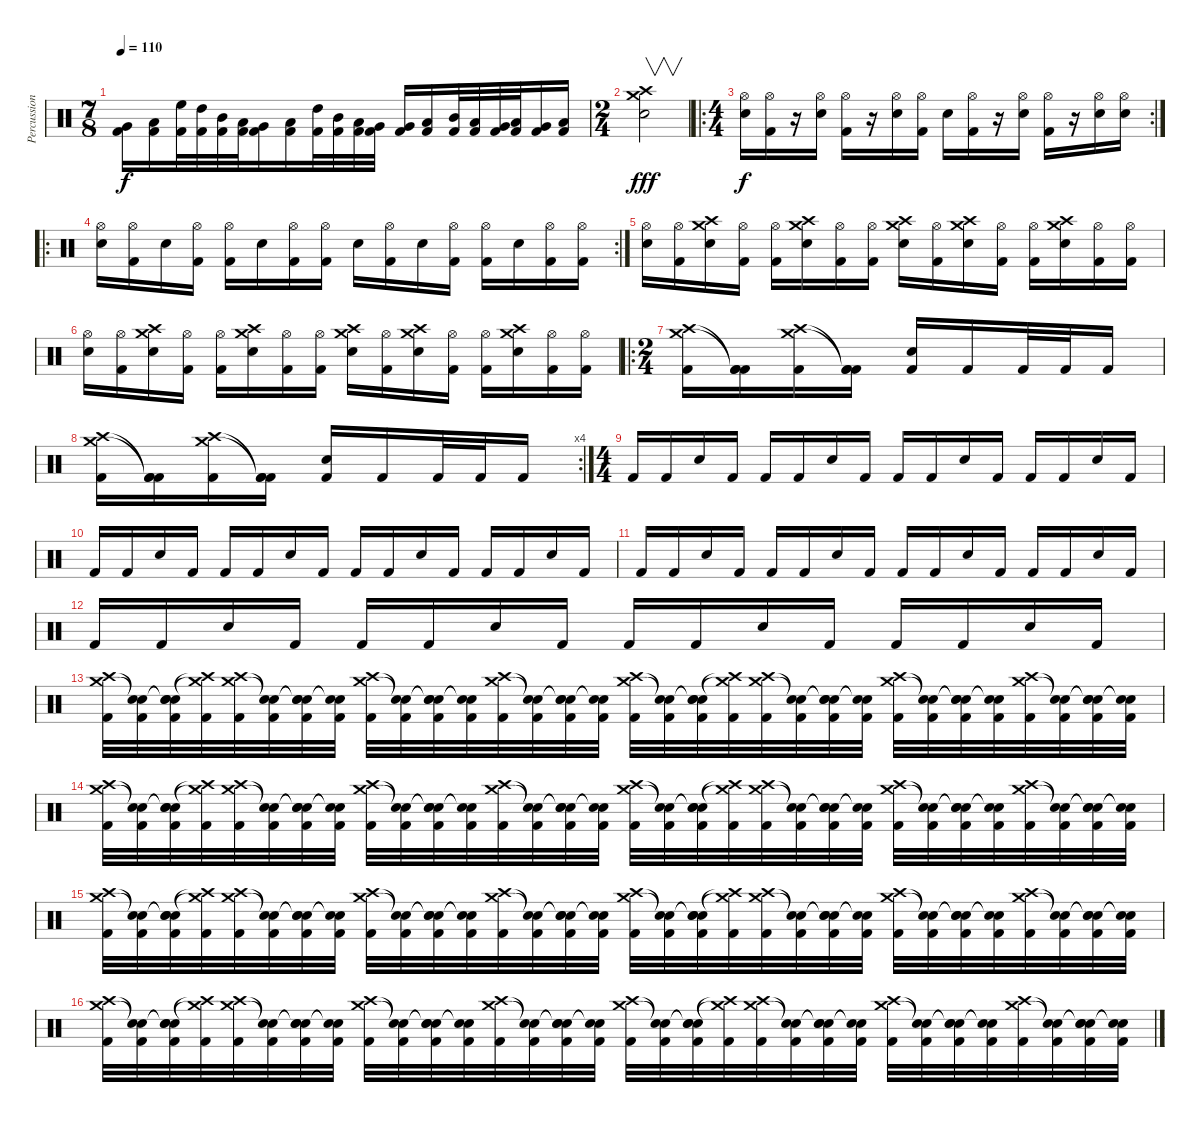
\track ("Percussion" "Percussion") {instrument percussion}
\staff {score}
\articulation defaults
\ts (7 8)
\tempo 110
\clef neutral
\ks c
("Very Low Tom (hit)" "Kick (hit) 2").16{dy f} ("Low Floor Tom (hit)" "Kick (hit) 2").16 ("High Floor Tom (hit)" "Kick (hit) 2").32 ("High Tom (hit)" "Kick (hit) 2").32 ("Mid Tom (hit)" "Kick (hit) 2").32 ("Low Tom (hit)" "Kick (hit) 2").32 ("Very Low Tom (hit)" "Kick (hit) 2").16 ("Low Floor Tom (hit)" "Kick (hit) 2").16 ("High Tom (hit)" "Kick (hit) 2").32 ("Mid Tom (hit)" "Kick (hit) 2").32 ("Low Tom (hit)" "Kick (hit) 2").32 ("Very Low Tom (hit)" "Kick (hit) 2").32 ("Very Low Tom (hit)" "Kick (hit) 2").16 ("Low Floor Tom (hit)" "Kick (hit) 2").16 ("Mid Tom (hit)" "Kick (hit) 2").32 ("Low Tom (hit)" "Kick (hit) 2").32 ("Very Low Tom (hit)" "Kick (hit) 2").32 ("Low Floor Tom (hit)" "Kick (hit) 2").32 ("Very Low Tom (hit)" "Kick (hit) 2").16 ("Low Floor Tom (hit)" "Kick (hit) 2").16 |
\ts (2 4)
("Crash high (hit)" "Snare (hit) 2" "Crash medium (hit)").2{v dy fff} |
\ro
\rc 2
\ts (4 4)
("Hi-Hat (open)" "Snare (hit) 2").16{dy f} ("Hi-Hat (open)" "Kick (hit) 2").16 r.16 ("Hi-Hat (open)" "Snare (hit) 2").16 ("Hi-Hat (open)" "Kick (hit) 2").16 r.16 ("Hi-Hat (open)" "Snare (hit) 2").16 ("Hi-Hat (open)" "Kick (hit) 2").16 "Snare (hit) 2".16 ("Hi-Hat (open)" "Kick (hit) 2").16 r.16 ("Hi-Hat (open)" "Snare (hit) 2").16 ("Hi-Hat (open)" "Kick (hit) 2").16 r.16 ("Hi-Hat (open)" "Snare (hit) 2").16 ("Hi-Hat (open)" "Snare (hit) 2").16 |
\ro
\rc 2
("Hi-Hat (open)" "Snare (hit) 2").16 ("Hi-Hat (open)" "Kick (hit) 2").16 "Snare (hit) 2".16 ("Hi-Hat (open)" "Kick (hit) 2").16 ("Hi-Hat (open)" "Kick (hit) 2").16 "Snare (hit) 2".16 ("Hi-Hat (open)" "Kick (hit) 2").16 ("Hi-Hat (open)" "Kick (hit) 2").16 "Snare (hit) 2".16 ("Hi-Hat (open)" "Kick (hit) 2").16 "Snare (hit) 2".16 ("Hi-Hat (open)" "Kick (hit) 2").16 ("Hi-Hat (open)" "Kick (hit) 2").16 "Snare (hit) 2".16 ("Hi-Hat (open)" "Kick (hit) 2").16 ("Hi-Hat (open)" "Kick (hit) 2").16 |
("Hi-Hat (open)" "Snare (hit) 2").16 ("Hi-Hat (open)" "Kick (hit) 2").16 ("Crash high (hit)" "Crash medium (hit)" "Snare (hit) 2").16 ("Hi-Hat (open)" "Kick (hit) 2").16 ("Hi-Hat (open)" "Kick (hit) 2").16 ("Crash high (hit)" "Crash medium (hit)" "Snare (hit) 2").16 ("Hi-Hat (open)" "Kick (hit) 2").16 ("Hi-Hat (open)" "Kick (hit) 2").16 ("Crash high (hit)" "Crash medium (hit)" "Snare (hit) 2").16 ("Hi-Hat (open)" "Kick (hit) 2").16 ("Crash high (hit)" "Crash medium (hit)" "Snare (hit) 2").16 ("Hi-Hat (open)" "Kick (hit) 2").16 ("Hi-Hat (open)" "Kick (hit) 2").16 ("Crash high (hit)" "Crash medium (hit)" "Snare (hit) 2").16 ("Hi-Hat (open)" "Kick (hit) 2").16 ("Hi-Hat (open)" "Kick (hit) 2").16 |
("Hi-Hat (open)" "Snare (hit) 2").16 ("Hi-Hat (open)" "Kick (hit) 2").16 ("Crash high (hit)" "Crash medium (hit)" "Snare (hit) 2").16 ("Hi-Hat (open)" "Kick (hit) 2").16 ("Hi-Hat (open)" "Kick (hit) 2").16 ("Crash high (hit)" "Crash medium (hit)" "Snare (hit) 2").16 ("Hi-Hat (open)" "Kick (hit) 2").16 ("Hi-Hat (open)" "Kick (hit) 2").16 ("Crash high (hit)" "Crash medium (hit)" "Snare (hit) 2").16 ("Hi-Hat (open)" "Kick (hit) 2").16 ("Crash high (hit)" "Crash medium (hit)" "Snare (hit) 2").16 ("Hi-Hat (open)" "Kick (hit) 2").16 ("Hi-Hat (open)" "Kick (hit) 2").16 ("Crash high (hit)" "Crash medium (hit)" "Snare (hit) 2").16 ("Hi-Hat (open)" "Kick (hit) 2").16 ("Hi-Hat (open)" "Kick (hit) 2").16 |
\ro
\ts (2 4)
("Crash high (hit)" "Crash medium (hit)" "Kick (hit) 2").16 ("Kick (hit) 2"{t} "Kick (hit) 2"{t} "Kick (hit) 2").16 ("Crash high (hit)" "Crash medium (hit)" "Kick (hit) 2").16 ("Kick (hit) 2"{t} "Kick (hit) 2"{t} "Kick (hit) 2").16 ("Snare (hit) 2" "Kick (hit) 2").16 "Kick (hit) 2".16 "Kick (hit) 2".32 "Kick (hit) 2".32 "Kick (hit) 2".16 |
\rc 4
("Crash high (hit)" "Crash medium (hit)" "Kick (hit) 2").16 ("Kick (hit) 2"{t} "Kick (hit) 2"{t} "Kick (hit) 2").16 ("Crash high (hit)" "Crash medium (hit)" "Kick (hit) 2").16 ("Kick (hit) 2"{t} "Kick (hit) 2"{t} "Kick (hit) 2").16 ("Snare (hit) 2" "Kick (hit) 2").16 "Kick (hit) 2".16 "Kick (hit) 2".32 "Kick (hit) 2".32 "Kick (hit) 2".16 |
\ts (4 4)
"Kick (hit) 2".16 "Kick (hit) 2".16 "Snare (hit) 2".16 "Kick (hit) 2".16 "Kick (hit) 2".16 "Kick (hit) 2".16 "Snare (hit) 2".16 "Kick (hit) 2".16 "Kick (hit) 2".16 "Kick (hit) 2".16 "Snare (hit) 2".16 "Kick (hit) 2".16 "Kick (hit) 2".16 "Kick (hit) 2".16 "Snare (hit) 2".16 "Kick (hit) 2".16 |
"Kick (hit) 2".16 "Kick (hit) 2".16 "Snare (hit) 2".16 "Kick (hit) 2".16 "Kick (hit) 2".16 "Kick (hit) 2".16 "Snare (hit) 2".16 "Kick (hit) 2".16 "Kick (hit) 2".16 "Kick (hit) 2".16 "Snare (hit) 2".16 "Kick (hit) 2".16 "Kick (hit) 2".16 "Kick (hit) 2".16 "Snare (hit) 2".16 "Kick (hit) 2".16 |
"Kick (hit) 2".16 "Kick (hit) 2".16 "Snare (hit) 2".16 "Kick (hit) 2".16 "Kick (hit) 2".16 "Kick (hit) 2".16 "Snare (hit) 2".16 "Kick (hit) 2".16 "Kick (hit) 2".16 "Kick (hit) 2".16 "Snare (hit) 2".16 "Kick (hit) 2".16 "Kick (hit) 2".16 "Kick (hit) 2".16 "Snare (hit) 2".16 "Kick (hit) 2".16 |
"Kick (hit) 2".16 "Kick (hit) 2".16 "Snare (hit) 2".16 "Kick (hit) 2".16 "Kick (hit) 2".16 "Kick (hit) 2".16 "Snare (hit) 2".16 "Kick (hit) 2".16 "Kick (hit) 2".16 "Kick (hit) 2".16 "Snare (hit) 2".16 "Kick (hit) 2".16 "Kick (hit) 2".16 "Kick (hit) 2".16 "Snare (hit) 2".16 "Kick (hit) 2".16 |
("Crash high (hit)" "Crash medium (hit)" "Kick (hit) 2").32 ("Snare (hit)"{t} "Snare (hit)"{t} "Kick (hit) 2").32 ("Snare (hit)"{t} "Snare (hit)"{t} "Snare (hit) 2" "Kick (hit) 2").32 ("Crash high (hit)"{t} "Crash medium (hit)"{t} "Kick (hit) 2").32 ("Crash high (hit)" "Crash medium (hit)" "Kick (hit) 2").32 ("Snare (hit)"{t} "Snare (hit)"{t} "Kick (hit) 2").32 ("Snare (hit)"{t} "Snare (hit)"{t} "Snare (hit) 2" "Kick (hit) 2").32 ("Snare (hit)"{t} "Snare (hit)"{t} "Kick (hit) 2").32 ("Crash high (hit)" "Crash medium (hit)" "Kick (hit) 2").32 ("Snare (hit)"{t} "Snare (hit)"{t} "Kick (hit) 2").32 ("Snare (hit)"{t} "Snare (hit)"{t} "Snare (hit) 2" "Kick (hit) 2").32 ("Snare (hit)"{t} "Snare (hit)"{t} "Kick (hit) 2").32 ("Crash high (hit)" "Crash medium (hit)" "Kick (hit) 2").32 ("Snare (hit)"{t} "Snare (hit)"{t} "Kick (hit) 2").32 ("Snare (hit)"{t} "Snare (hit)"{t} "Snare (hit) 2" "Kick (hit) 2").32 ("Snare (hit)"{t} "Snare (hit)"{t} "Kick (hit) 2").32 ("Crash high (hit)" "Crash medium (hit)" "Kick (hit) 2").32 ("Snare (hit)"{t} "Snare (hit)"{t} "Kick (hit) 2").32 ("Snare (hit)"{t} "Snare (hit)"{t} "Snare (hit) 2" "Kick (hit) 2").32 ("Crash high (hit)"{t} "Crash medium (hit)"{t} "Kick (hit) 2").32 ("Crash high (hit)" "Crash medium (hit)" "Kick (hit) 2").32 ("Snare (hit)"{t} "Snare (hit)"{t} "Kick (hit) 2").32 ("Snare (hit)"{t} "Snare (hit)"{t} "Snare (hit) 2" "Kick (hit) 2").32 ("Snare (hit)"{t} "Snare (hit)"{t} "Kick (hit) 2").32 ("Crash high (hit)" "Crash medium (hit)" "Kick (hit) 2").32 ("Snare (hit)"{t} "Snare (hit)"{t} "Kick (hit) 2").32 ("Snare (hit)"{t} "Snare (hit)"{t} "Snare (hit) 2" "Kick (hit) 2").32 ("Snare (hit)"{t} "Snare (hit)"{t} "Kick (hit) 2").32 ("Crash high (hit)" "Crash medium (hit)" "Kick (hit) 2").32 ("Snare (hit)"{t} "Snare (hit)"{t} "Kick (hit) 2").32 ("Snare (hit)"{t} "Snare (hit)"{t} "Snare (hit) 2" "Kick (hit) 2").32 ("Snare (hit)"{t} "Snare (hit)"{t} "Kick (hit) 2").32 |
("Crash high (hit)" "Crash medium (hit)" "Kick (hit) 2").32 ("Snare (hit)"{t} "Snare (hit)"{t} "Kick (hit) 2").32 ("Snare (hit)"{t} "Snare (hit)"{t} "Snare (hit) 2" "Kick (hit) 2").32 ("Crash high (hit)"{t} "Crash medium (hit)"{t} "Kick (hit) 2").32 ("Crash high (hit)" "Crash medium (hit)" "Kick (hit) 2").32 ("Snare (hit)"{t} "Snare (hit)"{t} "Kick (hit) 2").32 ("Snare (hit)"{t} "Snare (hit)"{t} "Snare (hit) 2" "Kick (hit) 2").32 ("Snare (hit)"{t} "Snare (hit)"{t} "Kick (hit) 2").32 ("Crash high (hit)" "Crash medium (hit)" "Kick (hit) 2").32 ("Snare (hit)"{t} "Snare (hit)"{t} "Kick (hit) 2").32 ("Snare (hit)"{t} "Snare (hit)"{t} "Snare (hit) 2" "Kick (hit) 2").32 ("Snare (hit)"{t} "Snare (hit)"{t} "Kick (hit) 2").32 ("Crash high (hit)" "Crash medium (hit)" "Kick (hit) 2").32 ("Snare (hit)"{t} "Snare (hit)"{t} "Kick (hit) 2").32 ("Snare (hit)"{t} "Snare (hit)"{t} "Snare (hit) 2" "Kick (hit) 2").32 ("Snare (hit)"{t} "Snare (hit)"{t} "Kick (hit) 2").32 ("Crash high (hit)" "Crash medium (hit)" "Kick (hit) 2").32 ("Snare (hit)"{t} "Snare (hit)"{t} "Kick (hit) 2").32 ("Snare (hit)"{t} "Snare (hit)"{t} "Snare (hit) 2" "Kick (hit) 2").32 ("Crash high (hit)"{t} "Crash medium (hit)"{t} "Kick (hit) 2").32 ("Crash high (hit)" "Crash medium (hit)" "Kick (hit) 2").32 ("Snare (hit)"{t} "Snare (hit)"{t} "Kick (hit) 2").32 ("Snare (hit)"{t} "Snare (hit)"{t} "Snare (hit) 2" "Kick (hit) 2").32 ("Snare (hit)"{t} "Snare (hit)"{t} "Kick (hit) 2").32 ("Crash high (hit)" "Crash medium (hit)" "Kick (hit) 2").32 ("Snare (hit)"{t} "Snare (hit)"{t} "Kick (hit) 2").32 ("Snare (hit)"{t} "Snare (hit)"{t} "Snare (hit) 2" "Kick (hit) 2").32 ("Snare (hit)"{t} "Snare (hit)"{t} "Kick (hit) 2").32 ("Crash high (hit)" "Crash medium (hit)" "Kick (hit) 2").32 ("Snare (hit)"{t} "Snare (hit)"{t} "Kick (hit) 2").32 ("Snare (hit)"{t} "Snare (hit)"{t} "Snare (hit) 2" "Kick (hit) 2").32 ("Snare (hit)"{t} "Snare (hit)"{t} "Kick (hit) 2").32 |
("Crash high (hit)" "Crash medium (hit)" "Kick (hit) 2").32 ("Snare (hit)"{t} "Snare (hit)"{t} "Kick (hit) 2").32 ("Snare (hit)"{t} "Snare (hit)"{t} "Snare (hit) 2" "Kick (hit) 2").32 ("Crash high (hit)"{t} "Crash medium (hit)"{t} "Kick (hit) 2").32 ("Crash high (hit)" "Crash medium (hit)" "Kick (hit) 2").32 ("Snare (hit)"{t} "Snare (hit)"{t} "Kick (hit) 2").32 ("Snare (hit)"{t} "Snare (hit)"{t} "Snare (hit) 2" "Kick (hit) 2").32 ("Snare (hit)"{t} "Snare (hit)"{t} "Kick (hit) 2").32 ("Crash high (hit)" "Crash medium (hit)" "Kick (hit) 2").32 ("Snare (hit)"{t} "Snare (hit)"{t} "Kick (hit) 2").32 ("Snare (hit)"{t} "Snare (hit)"{t} "Snare (hit) 2" "Kick (hit) 2").32 ("Snare (hit)"{t} "Snare (hit)"{t} "Kick (hit) 2").32 ("Crash high (hit)" "Crash medium (hit)" "Kick (hit) 2").32 ("Snare (hit)"{t} "Snare (hit)"{t} "Kick (hit) 2").32 ("Snare (hit)"{t} "Snare (hit)"{t} "Snare (hit) 2" "Kick (hit) 2").32 ("Snare (hit)"{t} "Snare (hit)"{t} "Kick (hit) 2").32 ("Crash high (hit)" "Crash medium (hit)" "Kick (hit) 2").32 ("Snare (hit)"{t} "Snare (hit)"{t} "Kick (hit) 2").32 ("Snare (hit)"{t} "Snare (hit)"{t} "Snare (hit) 2" "Kick (hit) 2").32 ("Crash high (hit)"{t} "Crash medium (hit)"{t} "Kick (hit) 2").32 ("Crash high (hit)" "Crash medium (hit)" "Kick (hit) 2").32 ("Snare (hit)"{t} "Snare (hit)"{t} "Kick (hit) 2").32 ("Snare (hit)"{t} "Snare (hit)"{t} "Snare (hit) 2" "Kick (hit) 2").32 ("Snare (hit)"{t} "Snare (hit)"{t} "Kick (hit) 2").32 ("Crash high (hit)" "Crash medium (hit)" "Kick (hit) 2").32 ("Snare (hit)"{t} "Snare (hit)"{t} "Kick (hit) 2").32 ("Snare (hit)"{t} "Snare (hit)"{t} "Snare (hit) 2" "Kick (hit) 2").32 ("Snare (hit)"{t} "Snare (hit)"{t} "Kick (hit) 2").32 ("Crash high (hit)" "Crash medium (hit)" "Kick (hit) 2").32 ("Snare (hit)"{t} "Snare (hit)"{t} "Kick (hit) 2").32 ("Snare (hit)"{t} "Snare (hit)"{t} "Snare (hit) 2" "Kick (hit) 2").32 ("Snare (hit)"{t} "Snare (hit)"{t} "Kick (hit) 2").32 |
("Crash high (hit)" "Crash medium (hit)" "Kick (hit) 2").32 ("Snare (hit)"{t} "Snare (hit)"{t} "Kick (hit) 2").32 ("Snare (hit)"{t} "Snare (hit)"{t} "Snare (hit) 2" "Kick (hit) 2").32 ("Crash high (hit)"{t} "Crash medium (hit)"{t} "Kick (hit) 2").32 ("Crash high (hit)" "Crash medium (hit)" "Kick (hit) 2").32 ("Snare (hit)"{t} "Snare (hit)"{t} "Kick (hit) 2").32 ("Snare (hit)"{t} "Snare (hit)"{t} "Snare (hit) 2" "Kick (hit) 2").32 ("Snare (hit)"{t} "Snare (hit)"{t} "Kick (hit) 2").32 ("Crash high (hit)" "Crash medium (hit)" "Kick (hit) 2").32 ("Snare (hit)"{t} "Snare (hit)"{t} "Kick (hit) 2").32 ("Snare (hit)"{t} "Snare (hit)"{t} "Snare (hit) 2" "Kick (hit) 2").32 ("Snare (hit)"{t} "Snare (hit)"{t} "Kick (hit) 2").32 ("Crash high (hit)" "Crash medium (hit)" "Kick (hit) 2").32 ("Snare (hit)"{t} "Snare (hit)"{t} "Kick (hit) 2").32 ("Snare (hit)"{t} "Snare (hit)"{t} "Snare (hit) 2" "Kick (hit) 2").32 ("Snare (hit)"{t} "Snare (hit)"{t} "Kick (hit) 2").32 ("Crash high (hit)" "Crash medium (hit)" "Kick (hit) 2").32 ("Snare (hit)"{t} "Snare (hit)"{t} "Kick (hit) 2").32 ("Snare (hit)"{t} "Snare (hit)"{t} "Snare (hit) 2" "Kick (hit) 2").32 ("Crash high (hit)"{t} "Crash medium (hit)"{t} "Kick (hit) 2").32 ("Crash high (hit)" "Crash medium (hit)" "Kick (hit) 2").32 ("Snare (hit)"{t} "Snare (hit)"{t} "Kick (hit) 2").32 ("Snare (hit)"{t} "Snare (hit)"{t} "Snare (hit) 2" "Kick (hit) 2").32 ("Snare (hit)"{t} "Snare (hit)"{t} "Kick (hit) 2").32 ("Crash high (hit)" "Crash medium (hit)" "Kick (hit) 2").32 ("Snare (hit)"{t} "Snare (hit)"{t} "Kick (hit) 2").32 ("Snare (hit)"{t} "Snare (hit)"{t} "Snare (hit) 2" "Kick (hit) 2").32 ("Snare (hit)"{t} "Snare (hit)"{t} "Kick (hit) 2").32 ("Crash high (hit)" "Crash medium (hit)" "Kick (hit) 2").32 ("Snare (hit)"{t} "Snare (hit)"{t} "Kick (hit) 2").32 ("Snare (hit)"{t} "Snare (hit)"{t} "Snare (hit) 2" "Kick (hit) 2").32 ("Snare (hit)"{t} "Snare (hit)"{t} "Kick (hit) 2").32
